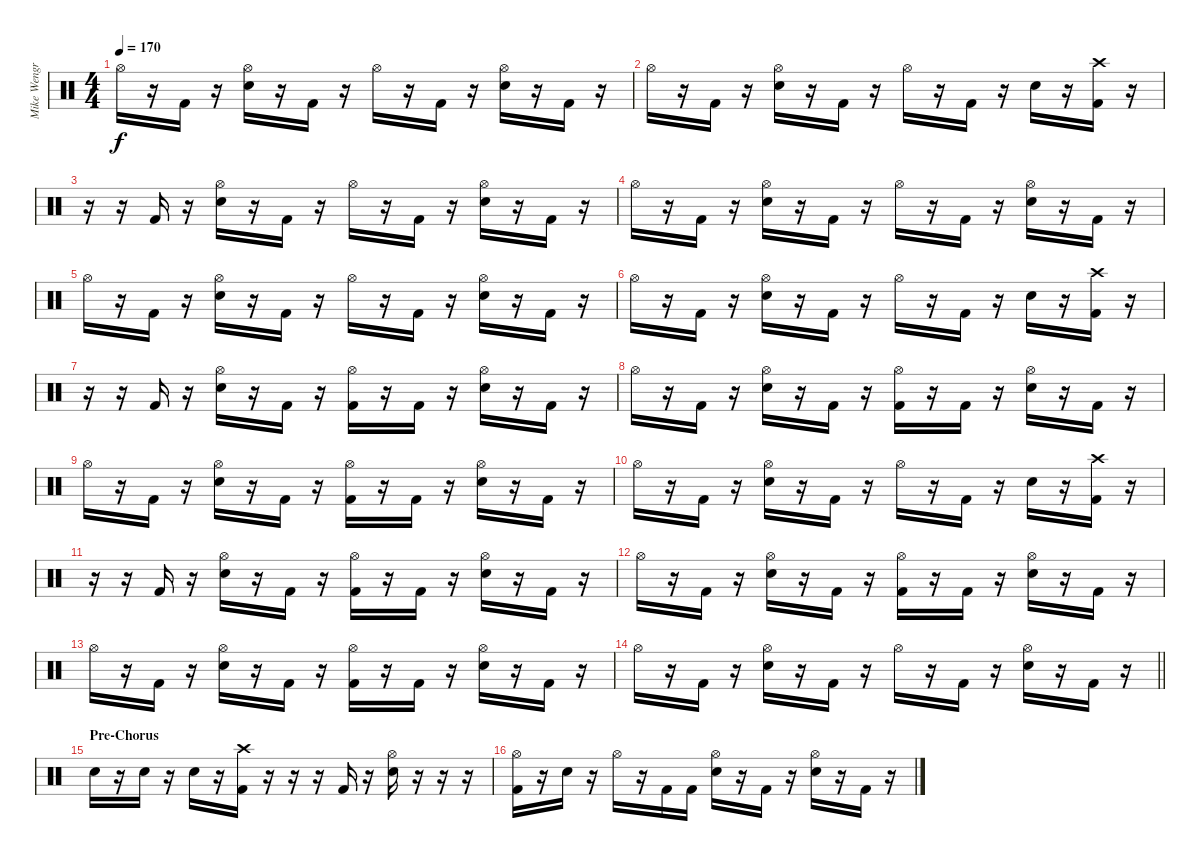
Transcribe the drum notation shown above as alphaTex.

\track ("Mike Wengren" "Mike Wengr") {instrument percussion}
\staff {score}
\articulation defaults
\ts (4 4)
\tempo 170
\clef neutral
\ks c "Hi-Hat (open)".16{dy f}
r.16 "Kick (hit) 2".16 r.16 ("Hi-Hat (open)" "Snare (hit) 2").16 r.16 "Kick (hit) 2".16 r.16 "Hi-Hat (open)".16 r.16 "Kick (hit) 2".16 r.16 ("Hi-Hat (open)" "Snare (hit) 2").16 r.16 "Kick (hit) 2".16 r.16 |
"Hi-Hat (open)".16 r.16 "Kick (hit) 2".16 r.16 ("Hi-Hat (open)" "Snare (hit) 2").16 r.16 "Kick (hit) 2".16 r.16 "Hi-Hat (open)".16 r.16 "Kick (hit) 2".16 r.16 "Snare (hit) 2".16 r.16 ("Crash high (hit)" "Kick (hit) 2").16 r.16 |
r.16 r.16 "Kick (hit) 2".16 r.16 ("Hi-Hat (open)" "Snare (hit) 2").16 r.16 "Kick (hit) 2".16 r.16 "Hi-Hat (open)".16 r.16 "Kick (hit) 2".16 r.16 ("Hi-Hat (open)" "Snare (hit) 2").16 r.16 "Kick (hit) 2".16 r.16 |
"Hi-Hat (open)".16 r.16 "Kick (hit) 2".16 r.16 ("Hi-Hat (open)" "Snare (hit) 2").16 r.16 "Kick (hit) 2".16 r.16 "Hi-Hat (open)".16 r.16 "Kick (hit) 2".16 r.16 ("Hi-Hat (open)" "Snare (hit) 2").16 r.16 "Kick (hit) 2".16 r.16 |
"Hi-Hat (open)".16 r.16 "Kick (hit) 2".16 r.16 ("Hi-Hat (open)" "Snare (hit) 2").16 r.16 "Kick (hit) 2".16 r.16 "Hi-Hat (open)".16 r.16 "Kick (hit) 2".16 r.16 ("Hi-Hat (open)" "Snare (hit) 2").16 r.16 "Kick (hit) 2".16 r.16 |
"Hi-Hat (open)".16 r.16 "Kick (hit) 2".16 r.16 ("Hi-Hat (open)" "Snare (hit) 2").16 r.16 "Kick (hit) 2".16 r.16 "Hi-Hat (open)".16 r.16 "Kick (hit) 2".16 r.16 "Snare (hit) 2".16 r.16 ("Crash high (hit)" "Kick (hit) 2").16 r.16 |
r.16 r.16 "Kick (hit) 2".16 r.16 ("Hi-Hat (open)" "Snare (hit) 2").16 r.16 "Kick (hit) 2".16 r.16 ("Hi-Hat (open)" "Kick (hit) 2").16 r.16 "Kick (hit) 2".16 r.16 ("Hi-Hat (open)" "Snare (hit) 2").16 r.16 "Kick (hit) 2".16 r.16 |
"Hi-Hat (open)".16 r.16 "Kick (hit) 2".16 r.16 ("Hi-Hat (open)" "Snare (hit) 2").16 r.16 "Kick (hit) 2".16 r.16 ("Hi-Hat (open)" "Kick (hit) 2").16 r.16 "Kick (hit) 2".16 r.16 ("Hi-Hat (open)" "Snare (hit) 2").16 r.16 "Kick (hit) 2".16 r.16 |
"Hi-Hat (open)".16 r.16 "Kick (hit) 2".16 r.16 ("Hi-Hat (open)" "Snare (hit) 2").16 r.16 "Kick (hit) 2".16 r.16 ("Hi-Hat (open)" "Kick (hit) 2").16 r.16 "Kick (hit) 2".16 r.16 ("Hi-Hat (open)" "Snare (hit) 2").16 r.16 "Kick (hit) 2".16 r.16 |
"Hi-Hat (open)".16 r.16 "Kick (hit) 2".16 r.16 ("Hi-Hat (open)" "Snare (hit) 2").16 r.16 "Kick (hit) 2".16 r.16 "Hi-Hat (open)".16 r.16 "Kick (hit) 2".16 r.16 "Snare (hit) 2".16 r.16 ("Crash high (hit)" "Kick (hit) 2").16 r.16 |
r.16 r.16 "Kick (hit) 2".16 r.16 ("Hi-Hat (open)" "Snare (hit) 2").16 r.16 "Kick (hit) 2".16 r.16 ("Hi-Hat (open)" "Kick (hit) 2").16 r.16 "Kick (hit) 2".16 r.16 ("Hi-Hat (open)" "Snare (hit) 2").16 r.16 "Kick (hit) 2".16 r.16 |
"Hi-Hat (open)".16 r.16 "Kick (hit) 2".16 r.16 ("Hi-Hat (open)" "Snare (hit) 2").16 r.16 "Kick (hit) 2".16 r.16 ("Hi-Hat (open)" "Kick (hit) 2").16 r.16 "Kick (hit) 2".16 r.16 ("Hi-Hat (open)" "Snare (hit) 2").16 r.16 "Kick (hit) 2".16 r.16 |
"Hi-Hat (open)".16 r.16 "Kick (hit) 2".16 r.16 ("Hi-Hat (open)" "Snare (hit) 2").16 r.16 "Kick (hit) 2".16 r.16 ("Hi-Hat (open)" "Kick (hit) 2").16 r.16 "Kick (hit) 2".16 r.16 ("Hi-Hat (open)" "Snare (hit) 2").16 r.16 "Kick (hit) 2".16 r.16 |
\barLineRight lightlight "Hi-Hat (open)".16
r.16 "Kick (hit) 2".16 r.16 ("Hi-Hat (open)" "Snare (hit) 2").16 r.16 "Kick (hit) 2".16 r.16 "Hi-Hat (open)".16 r.16 "Kick (hit) 2".16 r.16 ("Hi-Hat (open)" "Snare (hit) 2").16 r.16 "Kick (hit) 2".16 r.16 |
\section ("" "Pre-Chorus")
"Snare (hit) 2".16 r.16 "Snare (hit) 2".16 r.16 "Snare (hit) 2".16 r.16 ("Crash high (hit)" "Kick (hit) 2").16 r.16 r.16 r.16 "Kick (hit) 2".16 r.16 ("Hi-Hat (open)" "Snare (hit) 2").16 r.16 r.16 r.16 |
("Hi-Hat (open)" "Kick (hit) 2").16 r.16 "Snare (hit) 2".16 r.16 "Hi-Hat (open)".16 r.16 "Kick (hit) 2".16 "Kick (hit) 2".16 ("Hi-Hat (open)" "Snare (hit) 2").16 r.16 "Kick (hit) 2".16 r.16 ("Hi-Hat (open)" "Snare (hit) 2").16 r.16 "Kick (hit) 2".16 r.16
